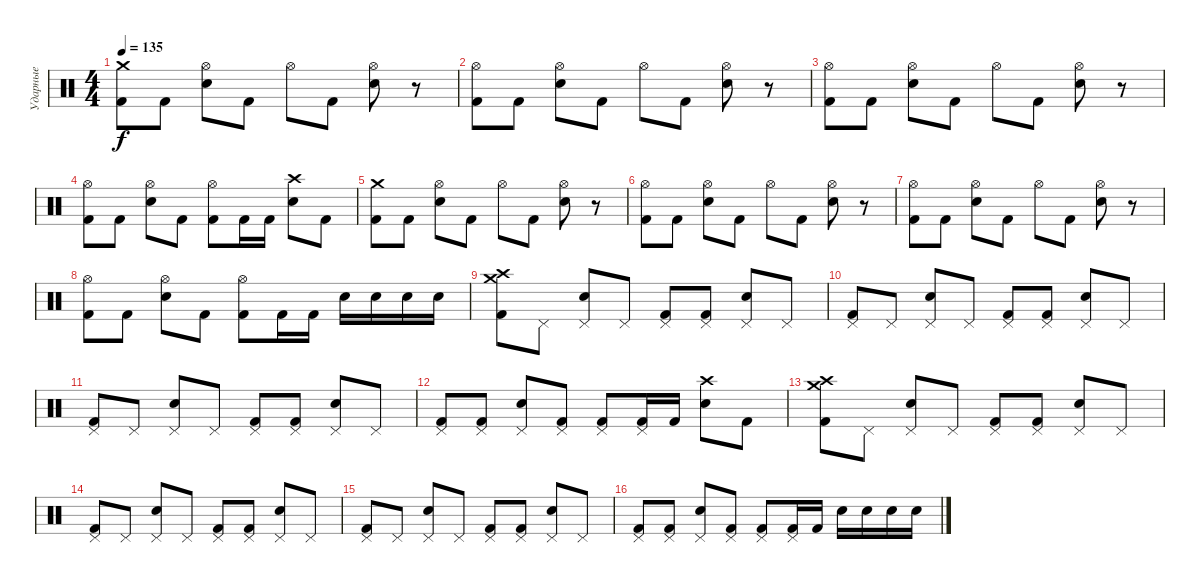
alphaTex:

\track ("Ударные" "Ударные") {instrument percussion}
\staff {score}
\articulation defaults
\ts (4 4)
\tempo 135
\clef neutral
\ks c
("Crash medium (hit)" "Kick (hit) 2").8{dy f} "Kick (hit) 2".8 ("Hi-Hat (open)" "Electric Snare (hit)").8 "Kick (hit) 2".8 "Hi-Hat (open)".8 "Kick (hit) 2".8 ("Hi-Hat (open)" "Electric Snare (hit)").8 r.8 |
("Hi-Hat (open)" "Kick (hit) 2").8 "Kick (hit) 2".8 ("Hi-Hat (open)" "Electric Snare (hit)").8 "Kick (hit) 2".8 "Hi-Hat (open)".8 "Kick (hit) 2".8 ("Hi-Hat (open)" "Electric Snare (hit)").8 r.8 |
("Hi-Hat (open)" "Kick (hit) 2").8 "Kick (hit) 2".8 ("Hi-Hat (open)" "Electric Snare (hit)").8 "Kick (hit) 2".8 "Hi-Hat (open)".8 "Kick (hit) 2".8 ("Hi-Hat (open)" "Electric Snare (hit)").8 r.8 |
("Hi-Hat (open)" "Kick (hit) 2").8 "Kick (hit) 2".8 ("Hi-Hat (open)" "Electric Snare (hit)").8 "Kick (hit) 2".8 ("Hi-Hat (open)" "Kick (hit) 2").8 "Kick (hit) 2".16 "Kick (hit) 2".16 ("Crash high (hit)" "Electric Snare (hit)").8 "Kick (hit) 2".8 |
("Crash medium (hit)" "Kick (hit) 2").8 "Kick (hit) 2".8 ("Hi-Hat (open)" "Electric Snare (hit)").8 "Kick (hit) 2".8 "Hi-Hat (open)".8 "Kick (hit) 2".8 ("Hi-Hat (open)" "Electric Snare (hit)").8 r.8 |
("Hi-Hat (open)" "Kick (hit) 2").8 "Kick (hit) 2".8 ("Hi-Hat (open)" "Electric Snare (hit)").8 "Kick (hit) 2".8 "Hi-Hat (open)".8 "Kick (hit) 2".8 ("Hi-Hat (open)" "Electric Snare (hit)").8 r.8 |
("Hi-Hat (open)" "Kick (hit) 2").8 "Kick (hit) 2".8 ("Hi-Hat (open)" "Electric Snare (hit)").8 "Kick (hit) 2".8 "Hi-Hat (open)".8 "Kick (hit) 2".8 ("Hi-Hat (open)" "Electric Snare (hit)").8 r.8 |
("Hi-Hat (open)" "Kick (hit) 2").8 "Kick (hit) 2".8 ("Hi-Hat (open)" "Electric Snare (hit)").8 "Kick (hit) 2".8 ("Hi-Hat (open)" "Kick (hit) 2").8 "Kick (hit) 2".16 "Kick (hit) 2".16 "Electric Snare (hit)".16 "Electric Snare (hit)".16 "Electric Snare (hit)".16 "Electric Snare (hit)".16 |
("Crash medium (hit)" "Crash high (hit)" "Kick (hit) 2").8 "Pedal Hi-Hat (hit)".8 ("Pedal Hi-Hat (hit)" "Electric Snare (hit)").8 "Pedal Hi-Hat (hit)".8 ("Pedal Hi-Hat (hit)" "Kick (hit) 2").8 ("Pedal Hi-Hat (hit)" "Kick (hit) 2").8 ("Pedal Hi-Hat (hit)" "Electric Snare (hit)").8 "Pedal Hi-Hat (hit)".8 |
("Pedal Hi-Hat (hit)" "Kick (hit) 2").8 "Pedal Hi-Hat (hit)".8 ("Pedal Hi-Hat (hit)" "Electric Snare (hit)").8 "Pedal Hi-Hat (hit)".8 ("Pedal Hi-Hat (hit)" "Kick (hit) 2").8 ("Pedal Hi-Hat (hit)" "Kick (hit) 2").8 ("Pedal Hi-Hat (hit)" "Electric Snare (hit)").8 "Pedal Hi-Hat (hit)".8 |
("Pedal Hi-Hat (hit)" "Kick (hit) 2").8 "Pedal Hi-Hat (hit)".8 ("Pedal Hi-Hat (hit)" "Electric Snare (hit)").8 "Pedal Hi-Hat (hit)".8 ("Pedal Hi-Hat (hit)" "Kick (hit) 2").8 ("Pedal Hi-Hat (hit)" "Kick (hit) 2").8 ("Pedal Hi-Hat (hit)" "Electric Snare (hit)").8 "Pedal Hi-Hat (hit)".8 |
("Pedal Hi-Hat (hit)" "Kick (hit) 2").8 ("Pedal Hi-Hat (hit)" "Kick (hit) 2").8 ("Pedal Hi-Hat (hit)" "Electric Snare (hit)").8 ("Pedal Hi-Hat (hit)" "Kick (hit) 2").8 ("Pedal Hi-Hat (hit)" "Kick (hit) 2").8 ("Pedal Hi-Hat (hit)" "Kick (hit) 2").16 "Kick (hit) 2".16 ("Crash high (hit)" "Electric Snare (hit)").8 "Kick (hit) 2".8 |
("Crash medium (hit)" "Crash high (hit)" "Kick (hit) 2").8 "Pedal Hi-Hat (hit)".8 ("Pedal Hi-Hat (hit)" "Electric Snare (hit)").8 "Pedal Hi-Hat (hit)".8 ("Pedal Hi-Hat (hit)" "Kick (hit) 2").8 ("Pedal Hi-Hat (hit)" "Kick (hit) 2").8 ("Pedal Hi-Hat (hit)" "Electric Snare (hit)").8 "Pedal Hi-Hat (hit)".8 |
("Pedal Hi-Hat (hit)" "Kick (hit) 2").8 "Pedal Hi-Hat (hit)".8 ("Pedal Hi-Hat (hit)" "Electric Snare (hit)").8 "Pedal Hi-Hat (hit)".8 ("Pedal Hi-Hat (hit)" "Kick (hit) 2").8 ("Pedal Hi-Hat (hit)" "Kick (hit) 2").8 ("Pedal Hi-Hat (hit)" "Electric Snare (hit)").8 "Pedal Hi-Hat (hit)".8 |
("Pedal Hi-Hat (hit)" "Kick (hit) 2").8 "Pedal Hi-Hat (hit)".8 ("Pedal Hi-Hat (hit)" "Electric Snare (hit)").8 "Pedal Hi-Hat (hit)".8 ("Pedal Hi-Hat (hit)" "Kick (hit) 2").8 ("Pedal Hi-Hat (hit)" "Kick (hit) 2").8 ("Pedal Hi-Hat (hit)" "Electric Snare (hit)").8 "Pedal Hi-Hat (hit)".8 |
("Pedal Hi-Hat (hit)" "Kick (hit) 2").8 ("Pedal Hi-Hat (hit)" "Kick (hit) 2").8 ("Pedal Hi-Hat (hit)" "Electric Snare (hit)").8 ("Pedal Hi-Hat (hit)" "Kick (hit) 2").8 ("Pedal Hi-Hat (hit)" "Kick (hit) 2").8 ("Pedal Hi-Hat (hit)" "Kick (hit) 2").16 "Kick (hit) 2".16 "Electric Snare (hit)".16 "Electric Snare (hit)".16 "Electric Snare (hit)".16 "Electric Snare (hit)".16
